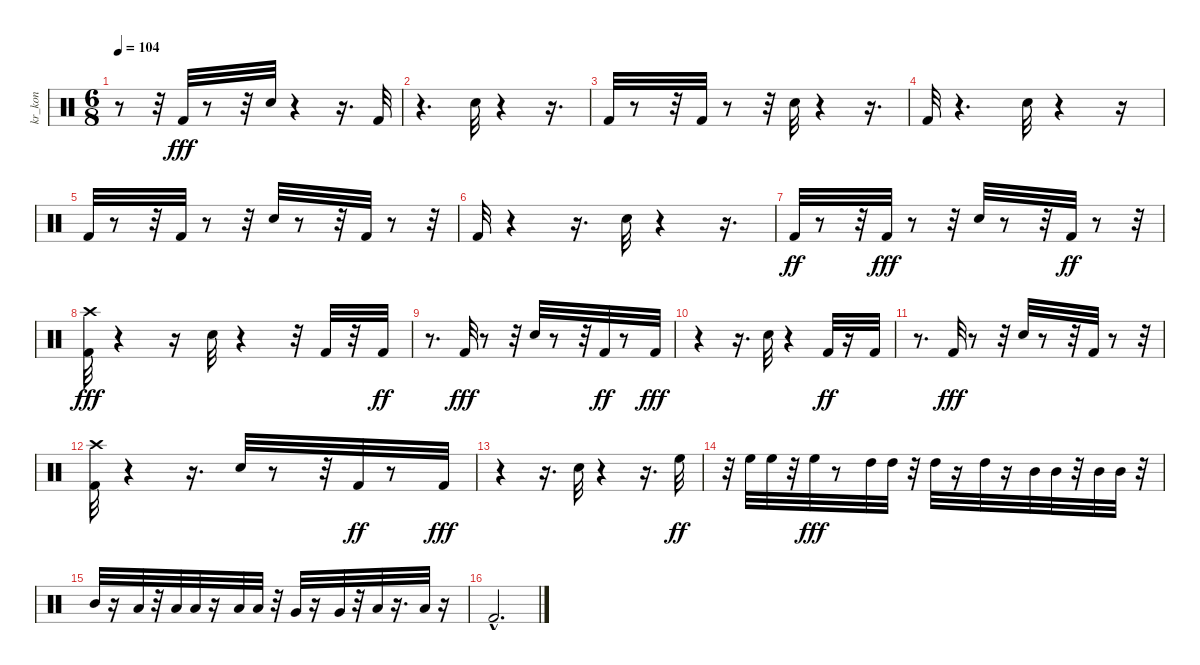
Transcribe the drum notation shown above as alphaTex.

\track ("kr_kon" "kr_kon") {instrument percussion}
\staff {score}
\articulation defaults
\ts (6 8)
\tempo 104
\clef neutral
\ks c
r.8{dy ff} r.32 "Kick (hit) 2".32{dy fff} r.8 r.32 "Electric Snare (hit)".32 r.4 r.16{d} "Kick (hit) 2".32 |
r.4{d} "Electric Snare (hit)".32 r.4 r.16{d} |
"Kick (hit) 2".32 r.8 r.32 "Kick (hit) 2".32 r.8 r.32 "Electric Snare (hit)".32 r.4 r.16{d} |
"Kick (hit) 2".32 r.4{d} "Electric Snare (hit)".32 r.4 r.16 |
"Kick (hit) 2".32 r.8 r.32 "Kick (hit) 2".32 r.8 r.32 "Electric Snare (hit)".32 r.8 r.32 "Kick (hit) 2".32 r.8 r.32 |
"Kick (hit) 2".32 r.4 r.16{d} "Electric Snare (hit)".32 r.4 r.16{d} |
"Kick (hit) 2".32{dy ff} r.8 r.32 "Kick (hit) 2".32{dy fff} r.8 r.32 "Electric Snare (hit)".32 r.8 r.32 "Kick (hit) 2".32{dy ff} r.8 r.32 |
("Crash high (hit)" "Kick (hit) 2").32{dy fff} r.4 r.16 "Electric Snare (hit)".32 r.4 r.32 "Kick (hit) 2".32 r.32 "Kick (hit) 2".32{dy ff} |
r.8{d} "Kick (hit) 2".32{dy fff} r.8 r.32 "Electric Snare (hit)".32 r.8 r.32 "Kick (hit) 2".32{dy ff} r.8 "Kick (hit) 2".32{dy fff} |
r.4 r.16{d} "Electric Snare (hit)".32 r.4 "Kick (hit) 2".32{dy ff} r.16 "Kick (hit) 2".32 |
r.8{d} "Kick (hit) 2".32{dy fff} r.8 r.32 "Electric Snare (hit)".32 r.8 r.32 "Kick (hit) 2".32 r.8 r.32 |
("Kick (hit) 2" "Crash high (hit)").32 r.4 r.16{d} "Electric Snare (hit)".32 r.8 r.32 "Kick (hit) 2".32{dy ff} r.8 "Kick (hit) 2".32{dy fff} |
r.4 r.16{d} "Electric Snare (hit)".32 r.4 r.16{d} "High Floor Tom (hit)".32{dy ff} |
r.32 "High Floor Tom (hit)".32 "High Floor Tom (hit)".32 r.32 "High Floor Tom (hit)".32{dy fff} r.8 "High Tom (hit)".32 "High Tom (hit)".32 r.32 "High Tom (hit)".32 r.16 "High Tom (hit)".32 r.16 "Mid Tom (hit)".32 "Mid Tom (hit)".32 r.32 "Mid Tom (hit)".32 "Mid Tom (hit)".32 r.32 |
"Mid Tom (hit)".32 r.16 "Low Tom (hit)".32 r.32 "Low Tom (hit)".32 "Low Tom (hit)".32 r.16 "Low Tom (hit)".32 "Low Tom (hit)".32 r.32 "Very Low Tom (hit)".32 r.16 "Very Low Tom (hit)".32 r.32 "Low Floor Tom (hit)".32 r.16{d} "Low Floor Tom (hit)".32 r.16 |
"Kick (hit) 2"{hac}.2{d}
